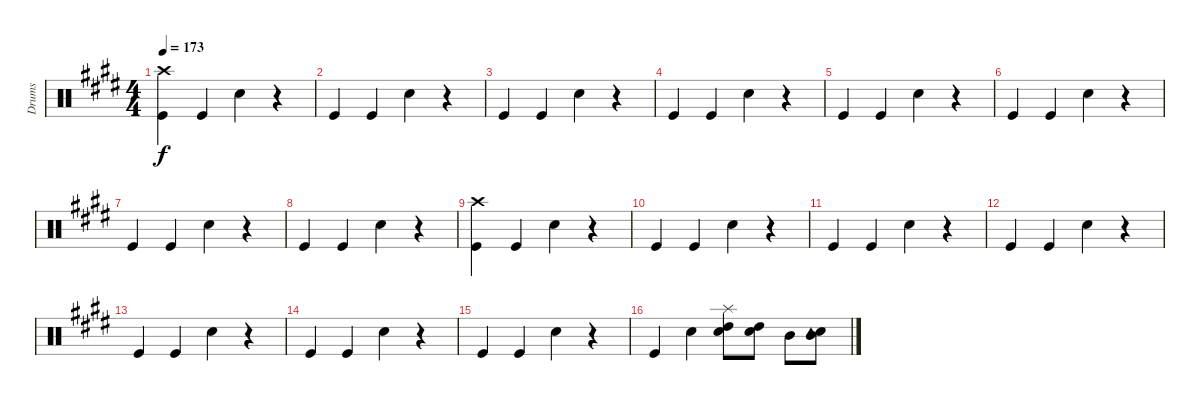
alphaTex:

\track ("Drums" "Drums") {instrument percussion}
\staff {score}
\articulation defaults
\ts (4 4)
\tempo 173
\clef neutral
\ks e
("Kick (hit)" "Crash high (hit)").4{dy f} "Kick (hit)".4 "Snare (hit) 2".4 r.4 |
"Kick (hit)".4 "Kick (hit)".4 "Snare (hit) 2".4 r.4 |
"Kick (hit)".4 "Kick (hit)".4 "Snare (hit) 2".4 r.4 |
"Kick (hit)".4 "Kick (hit)".4 "Snare (hit) 2".4 r.4 |
"Kick (hit)".4 "Kick (hit)".4 "Snare (hit) 2".4 r.4 |
"Kick (hit)".4 "Kick (hit)".4 "Snare (hit) 2".4 r.4 |
"Kick (hit)".4 "Kick (hit)".4 "Snare (hit) 2".4 r.4 |
"Kick (hit)".4 "Kick (hit)".4 "Snare (hit) 2".4 r.4 |
("Kick (hit)" "Crash high (hit)").4 "Kick (hit)".4 "Snare (hit) 2".4 r.4 |
"Kick (hit)".4 "Kick (hit)".4 "Snare (hit) 2".4 r.4 |
"Kick (hit)".4 "Kick (hit)".4 "Snare (hit) 2".4 r.4 |
"Kick (hit)".4 "Kick (hit)".4 "Snare (hit) 2".4 r.4 |
"Kick (hit)".4 "Kick (hit)".4 "Snare (hit) 2".4 r.4 |
"Kick (hit)".4 "Kick (hit)".4 "Snare (hit) 2".4 r.4 |
"Kick (hit)".4 "Kick (hit)".4 "Snare (hit) 2".4 r.4 |
"Kick (hit)".4 "Snare (hit) 2".4 ("Snare (hit) 2" "Splash (hit)" "High Tom (hit)").8 ("Snare (hit) 2" "High Tom (hit)").8 "Mid Tom (hit)".8 ("Snare (hit) 2" "Tambourine (hit)" "Mid Tom (hit)").8
